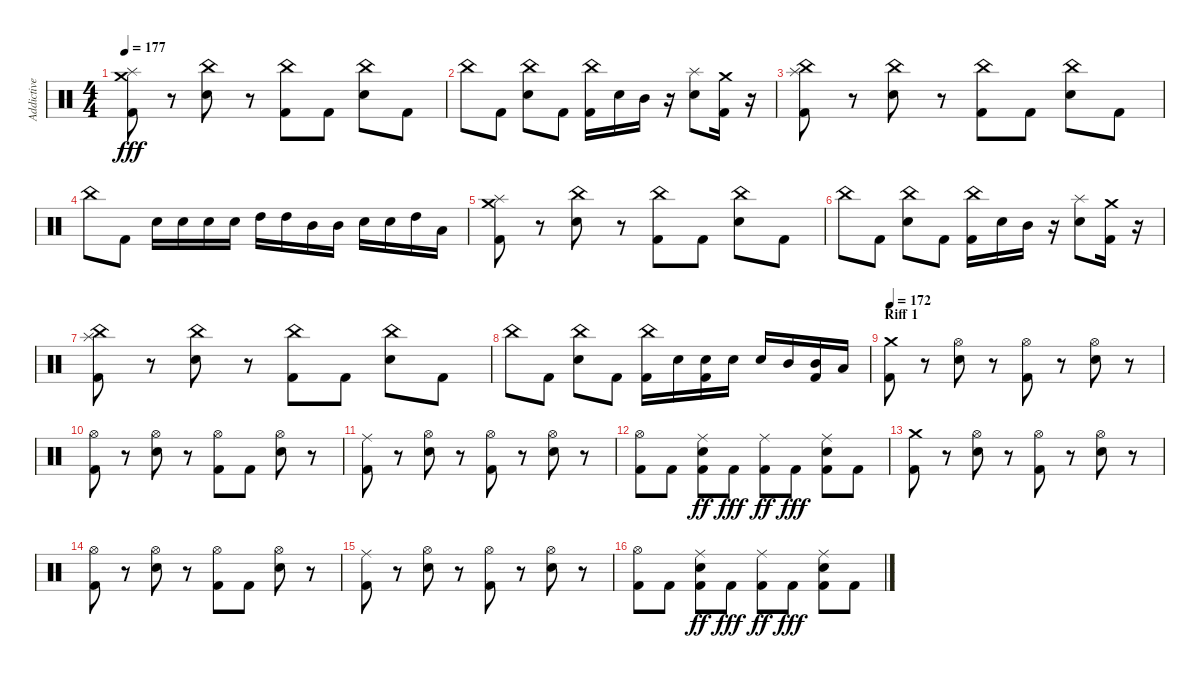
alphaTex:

\track ("Addictive" "Addictive") {instrument percussion}
\staff {score}
\articulation defaults
\ts (4 4)
\tempo 177
\clef neutral
\ks c
("Kick (hit) 2" "Splash (hit)" "Crash medium (hit)").8{dy fff} r.8 ("Snare (hit) 2" "China (hit)").8 r.8 ("Kick (hit) 2" "China (hit)").8 "Kick (hit) 2".8 ("Snare (hit) 2" "China (hit)").8 "Kick (hit) 2".8 |
"China (hit)".8 "Kick (hit) 2".8 ("Snare (hit) 2" "China (hit)").8 "Kick (hit) 2".8 ("Kick (hit) 2" "China (hit)").16 "Snare (hit) 2".16 "Mid Tom (hit)".16 r.16 ("Snare (hit) 2" "Splash (hit)").8 ("Kick (hit) 2" "Crash medium (hit)").16 r.16 |
("Kick (hit) 2" "Splash (hit)" "China (hit)").8 r.8 ("Snare (hit) 2" "China (hit)").8 r.8 ("Kick (hit) 2" "China (hit)").8 "Kick (hit) 2".8 ("Snare (hit) 2" "China (hit)").8 "Kick (hit) 2".8 |
"China (hit)".8 "Kick (hit) 2".8 "Snare (hit) 2".16 "Snare (hit) 2".16 "Snare (hit) 2".16 "Snare (hit) 2".16 "High Tom (hit)".16 "High Tom (hit)".16 "Mid Tom (hit)".16 "Mid Tom (hit)".16 "Snare (hit) 2".16 "Snare (hit) 2".16 "High Tom (hit)".16 "Low Tom (hit)".16 |
("Kick (hit) 2" "Splash (hit)" "Crash medium (hit)").8 r.8 ("Snare (hit) 2" "China (hit)").8 r.8 ("Kick (hit) 2" "China (hit)").8 "Kick (hit) 2".8 ("Snare (hit) 2" "China (hit)").8 "Kick (hit) 2".8 |
"China (hit)".8 "Kick (hit) 2".8 ("Snare (hit) 2" "China (hit)").8 "Kick (hit) 2".8 ("Kick (hit) 2" "China (hit)").16 "Snare (hit) 2".16 "Mid Tom (hit)".16 r.16 ("Snare (hit) 2" "Splash (hit)").8 ("Kick (hit) 2" "Crash medium (hit)").16 r.16 |
("Kick (hit) 2" "Splash (hit)" "China (hit)").8 r.8 ("Snare (hit) 2" "China (hit)").8 r.8 ("Kick (hit) 2" "China (hit)").8 "Kick (hit) 2".8 ("Snare (hit) 2" "China (hit)").8 "Kick (hit) 2".8 |
"China (hit)".8 "Kick (hit) 2".8 ("Snare (hit) 2" "China (hit)").8 "Kick (hit) 2".8 ("Kick (hit) 2" "China (hit)").16 "Snare (hit) 2".16 ("Kick (hit) 2" "Snare (hit) 2").16 "Snare (hit) 2".16 "Snare (hit) 2".16 "Mid Tom (hit)".16 ("Kick (hit) 2" "Mid Tom (hit)").16 "Low Tom (hit)".16 |
\section ("" "Riff 1")
\tempo 172
("Kick (hit) 2" "Crash medium (hit)").8 r.8 ("Snare (hit) 2" "Hi-Hat (open)").8 r.8 ("Kick (hit) 2" "Hi-Hat (open)").8 r.8 ("Snare (hit) 2" "Hi-Hat (open)").8 r.8 |
("Kick (hit) 2" "Hi-Hat (open)").8 r.8 ("Snare (hit) 2" "Hi-Hat (open)").8 r.8 ("Kick (hit) 2" "Hi-Hat (open)").8 "Kick (hit) 2".8 ("Snare (hit) 2" "Hi-Hat (open)").8 r.8 |
("Kick (hit) 2" "Ride (middle)").8 r.8 ("Snare (hit) 2" "Hi-Hat (open)").8 r.8 ("Kick (hit) 2" "Hi-Hat (open)").8 r.8 ("Snare (hit) 2" "Hi-Hat (open)").8 r.8 |
("Kick (hit) 2" "Hi-Hat (open)").8 "Kick (hit) 2".8 ("Kick (hit) 2" "Snare (hit) 2" "Ride (middle)").8{dy ff} "Kick (hit) 2".8{dy fff} ("Kick (hit) 2" "Ride (middle)").8{dy ff} "Kick (hit) 2".8{dy fff} ("Kick (hit) 2" "Snare (hit) 2" "Ride (middle)").8 "Kick (hit) 2".8 |
("Kick (hit) 2" "Crash medium (hit)").8 r.8 ("Snare (hit) 2" "Hi-Hat (open)").8 r.8 ("Kick (hit) 2" "Hi-Hat (open)").8 r.8 ("Snare (hit) 2" "Hi-Hat (open)").8 r.8 |
("Kick (hit) 2" "Hi-Hat (open)").8 r.8 ("Snare (hit) 2" "Hi-Hat (open)").8 r.8 ("Kick (hit) 2" "Hi-Hat (open)").8 "Kick (hit) 2".8 ("Snare (hit) 2" "Hi-Hat (open)").8 r.8 |
("Kick (hit) 2" "Ride (middle)").8 r.8 ("Snare (hit) 2" "Hi-Hat (open)").8 r.8 ("Kick (hit) 2" "Hi-Hat (open)").8 r.8 ("Snare (hit) 2" "Hi-Hat (open)").8 r.8 |
("Kick (hit) 2" "Hi-Hat (open)").8 "Kick (hit) 2".8 ("Kick (hit) 2" "Snare (hit) 2" "Ride (middle)").8{dy ff} "Kick (hit) 2".8{dy fff} ("Kick (hit) 2" "Ride (middle)").8{dy ff} "Kick (hit) 2".8{dy fff} ("Kick (hit) 2" "Snare (hit) 2" "Ride (middle)").8 "Kick (hit) 2".8
